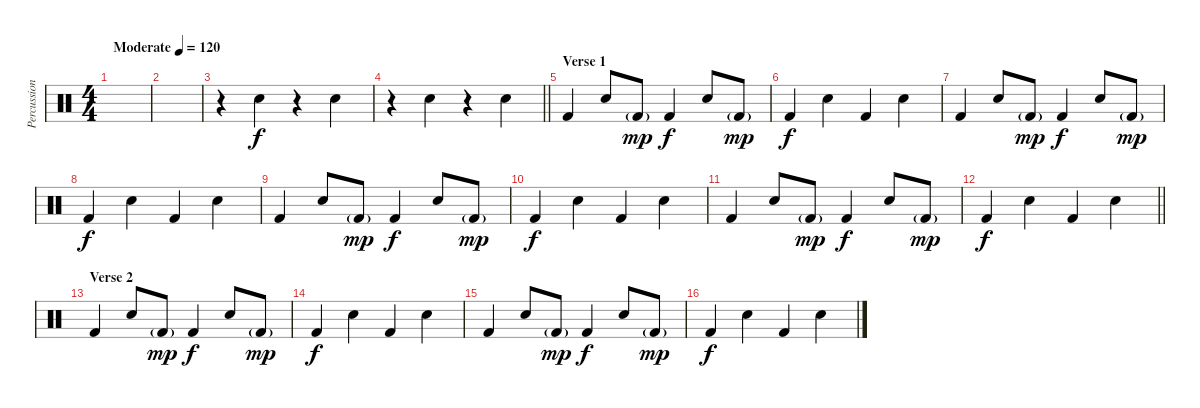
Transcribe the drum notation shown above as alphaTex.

\track ("Percussion" "Percussion") {instrument percussion}
\staff {score}
\articulation defaults
\ts (4 4)
\tempo (120 "Moderate")
\clef neutral
\ks c
|
|
r.4 "Snare (hit) 2".4 r.4 "Snare (hit) 2".4 |
\barLineRight lightlight
r.4 "Snare (hit) 2".4 r.4 "Snare (hit) 2".4 |
\section ("" "Verse 1")
"Kick (hit) 2".4 "Snare (hit) 2".8 "Kick (hit) 2"{g}.8{dy mp} "Kick (hit) 2".4{dy f} "Snare (hit) 2".8 "Kick (hit) 2"{g}.8{dy mp} |
"Kick (hit) 2".4{dy f} "Snare (hit) 2".4 "Kick (hit) 2".4 "Snare (hit) 2".4 |
"Kick (hit) 2".4 "Snare (hit) 2".8 "Kick (hit) 2"{g}.8{dy mp} "Kick (hit) 2".4{dy f} "Snare (hit) 2".8 "Kick (hit) 2"{g}.8{dy mp} |
"Kick (hit) 2".4{dy f} "Snare (hit) 2".4 "Kick (hit) 2".4 "Snare (hit) 2".4 |
"Kick (hit) 2".4 "Snare (hit) 2".8 "Kick (hit) 2"{g}.8{dy mp} "Kick (hit) 2".4{dy f} "Snare (hit) 2".8 "Kick (hit) 2"{g}.8{dy mp} |
"Kick (hit) 2".4{dy f} "Snare (hit) 2".4 "Kick (hit) 2".4 "Snare (hit) 2".4 |
"Kick (hit) 2".4 "Snare (hit) 2".8 "Kick (hit) 2"{g}.8{dy mp} "Kick (hit) 2".4{dy f} "Snare (hit) 2".8 "Kick (hit) 2"{g}.8{dy mp} |
\barLineRight lightlight "Kick (hit) 2".4{dy f} "Snare (hit) 2".4 "Kick (hit) 2".4 "Snare (hit) 2".4
|
\section ("" "Verse 2")
"Kick (hit) 2".4 "Snare (hit) 2".8 "Kick (hit) 2"{g}.8{dy mp} "Kick (hit) 2".4{dy f} "Snare (hit) 2".8 "Kick (hit) 2"{g}.8{dy mp} |
"Kick (hit) 2".4{dy f} "Snare (hit) 2".4 "Kick (hit) 2".4 "Snare (hit) 2".4 |
"Kick (hit) 2".4 "Snare (hit) 2".8 "Kick (hit) 2"{g}.8{dy mp} "Kick (hit) 2".4{dy f} "Snare (hit) 2".8 "Kick (hit) 2"{g}.8{dy mp} |
"Kick (hit) 2".4{dy f} "Snare (hit) 2".4 "Kick (hit) 2".4 "Snare (hit) 2".4
